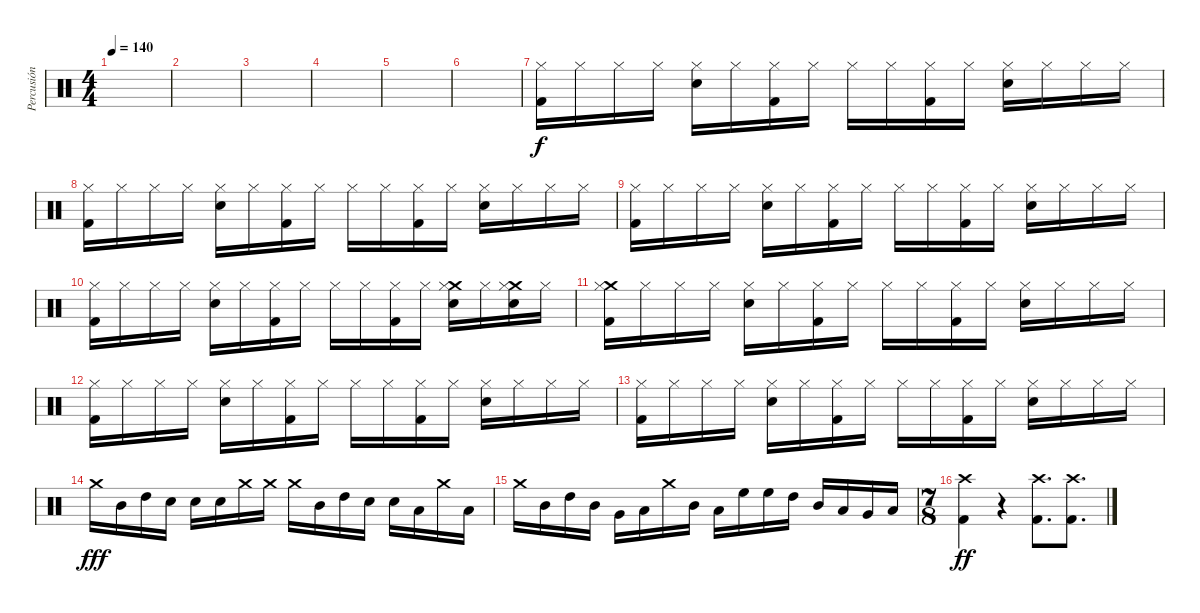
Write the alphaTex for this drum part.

\track ("Percusión" "Percusión") {instrument percussion}
\staff {score}
\articulation defaults
\ts (4 4)
\tempo 140
\clef neutral
\ks c
|
|
|
|
|
|
("Hi-Hat (closed)" "Kick (hit) 2").16{dy f} "Hi-Hat (closed)".16 "Hi-Hat (closed)".16 "Hi-Hat (closed)".16 ("Hi-Hat (closed)" "Electric Snare (hit)").16 "Hi-Hat (closed)".16 ("Hi-Hat (closed)" "Kick (hit) 2").16 "Hi-Hat (closed)".16 "Hi-Hat (closed)".16 "Hi-Hat (closed)".16 ("Hi-Hat (closed)" "Kick (hit) 2").16 "Hi-Hat (closed)".16 ("Hi-Hat (closed)" "Electric Snare (hit)").16 "Hi-Hat (closed)".16 "Hi-Hat (closed)".16 "Hi-Hat (closed)".16 |
("Hi-Hat (closed)" "Kick (hit) 2").16 "Hi-Hat (closed)".16 "Hi-Hat (closed)".16 "Hi-Hat (closed)".16 ("Hi-Hat (closed)" "Electric Snare (hit)").16 "Hi-Hat (closed)".16 ("Hi-Hat (closed)" "Kick (hit) 2").16 "Hi-Hat (closed)".16 "Hi-Hat (closed)".16 "Hi-Hat (closed)".16 ("Hi-Hat (closed)" "Kick (hit) 2").16 "Hi-Hat (closed)".16 ("Hi-Hat (closed)" "Electric Snare (hit)").16 "Hi-Hat (closed)".16 "Hi-Hat (closed)".16 "Hi-Hat (closed)".16 |
("Hi-Hat (closed)" "Kick (hit) 2").16 "Hi-Hat (closed)".16 "Hi-Hat (closed)".16 "Hi-Hat (closed)".16 ("Hi-Hat (closed)" "Electric Snare (hit)").16 "Hi-Hat (closed)".16 ("Hi-Hat (closed)" "Kick (hit) 2").16 "Hi-Hat (closed)".16 "Hi-Hat (closed)".16 "Hi-Hat (closed)".16 ("Hi-Hat (closed)" "Kick (hit) 2").16 "Hi-Hat (closed)".16 ("Hi-Hat (closed)" "Electric Snare (hit)").16 "Hi-Hat (closed)".16 "Hi-Hat (closed)".16 "Hi-Hat (closed)".16 |
("Hi-Hat (closed)" "Kick (hit) 2").16 "Hi-Hat (closed)".16 "Hi-Hat (closed)".16 "Hi-Hat (closed)".16 ("Hi-Hat (closed)" "Electric Snare (hit)").16 "Hi-Hat (closed)".16 ("Hi-Hat (closed)" "Kick (hit) 2").16 "Hi-Hat (closed)".16 "Hi-Hat (closed)".16 "Hi-Hat (closed)".16 ("Hi-Hat (closed)" "Kick (hit) 2").16 "Hi-Hat (closed)".16 ("Crash medium (hit)" "Hi-Hat (closed)" "Electric Snare (hit)").16 "Hi-Hat (closed)".16 ("Crash medium (hit)" "Hi-Hat (closed)" "Electric Snare (hit)").16 "Hi-Hat (closed)".16 |
("Crash medium (hit)" "Hi-Hat (closed)" "Kick (hit) 2").16 "Hi-Hat (closed)".16 "Hi-Hat (closed)".16 "Hi-Hat (closed)".16 ("Hi-Hat (closed)" "Electric Snare (hit)").16 "Hi-Hat (closed)".16 ("Hi-Hat (closed)" "Kick (hit) 2").16 "Hi-Hat (closed)".16 "Hi-Hat (closed)".16 "Hi-Hat (closed)".16 ("Hi-Hat (closed)" "Kick (hit) 2").16 "Hi-Hat (closed)".16 ("Hi-Hat (closed)" "Electric Snare (hit)").16 "Hi-Hat (closed)".16 "Hi-Hat (closed)".16 "Hi-Hat (closed)".16 |
("Hi-Hat (closed)" "Kick (hit) 2").16 "Hi-Hat (closed)".16 "Hi-Hat (closed)".16 "Hi-Hat (closed)".16 ("Hi-Hat (closed)" "Electric Snare (hit)").16 "Hi-Hat (closed)".16 ("Hi-Hat (closed)" "Kick (hit) 2").16 "Hi-Hat (closed)".16 "Hi-Hat (closed)".16 "Hi-Hat (closed)".16 ("Hi-Hat (closed)" "Kick (hit) 2").16 "Hi-Hat (closed)".16 ("Hi-Hat (closed)" "Electric Snare (hit)").16 "Hi-Hat (closed)".16 "Hi-Hat (closed)".16 "Hi-Hat (closed)".16 |
("Hi-Hat (closed)" "Kick (hit) 2").16 "Hi-Hat (closed)".16 "Hi-Hat (closed)".16 "Hi-Hat (closed)".16 ("Hi-Hat (closed)" "Electric Snare (hit)").16 "Hi-Hat (closed)".16 ("Hi-Hat (closed)" "Kick (hit) 2").16 "Hi-Hat (closed)".16 "Hi-Hat (closed)".16 "Hi-Hat (closed)".16 ("Hi-Hat (closed)" "Kick (hit) 2").16 "Hi-Hat (closed)".16 ("Hi-Hat (closed)" "Electric Snare (hit)").16 "Hi-Hat (closed)".16 "Hi-Hat (closed)".16 "Hi-Hat (closed)".16 |
"Crash medium (hit)".16{dy fff} "Mid Tom (hit)".16 "High Tom (hit)".16 "Electric Snare (hit)".16 "Electric Snare (hit)".16 "Electric Snare (hit)".16 "Crash medium (hit)".16 "Crash medium (hit)".16 "Crash medium (hit)".16 "Mid Tom (hit)".16 "High Tom (hit)".16 "Electric Snare (hit)".16 "Electric Snare (hit)".16 "Low Floor Tom (hit)".16 "Crash medium (hit)".16 "Low Tom (hit)".16 |
"Crash medium (hit)".16 "Mid Tom (hit)".16 "High Tom (hit)".16 "Mid Tom (hit)".16 "Very Low Tom (hit)".16 "Low Tom (hit)".16 "Crash medium (hit)".16 "Mid Tom (hit)".16 "Low Tom (hit)".16 "High Floor Tom (hit)".16 "High Floor Tom (hit)".16 "High Tom (hit)".16 "Mid Tom (hit)".16 "Low Tom (hit)".16 "Very Low Tom (hit)".16 "Low Floor Tom (hit)".16 |
\ts (7 8)
("Crash high (hit)" "Kick (hit) 2").4{dy ff} r.4 ("Crash high (hit)" "Kick (hit) 2").8{d} ("Crash high (hit)" "Kick (hit) 2").8{d}
